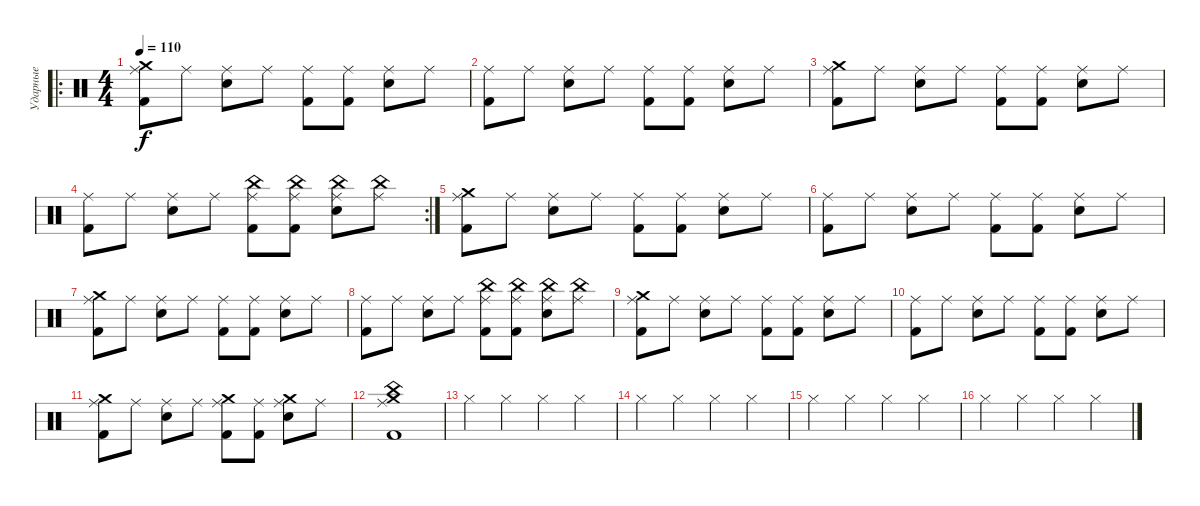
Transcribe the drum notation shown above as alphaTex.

\track ("Ударные" "Ударные") {instrument percussion}
\staff {score}
\articulation defaults
\ro
\ts (4 4)
\tempo 110
\clef neutral
\ks c
("Ride (middle)" "Crash medium (hit)" "Kick (hit) 2").8{dy f} "Ride (middle)".8 ("Ride (middle)" "Electric Snare (hit)").8 "Ride (middle)".8 ("Ride (middle)" "Kick (hit) 2").8 ("Ride (middle)" "Kick (hit) 2").8 ("Ride (middle)" "Electric Snare (hit)").8 "Ride (middle)".8 |
("Ride (middle)" "Kick (hit) 2").8 "Ride (middle)".8 ("Ride (middle)" "Electric Snare (hit)").8 "Ride (middle)".8 ("Ride (middle)" "Kick (hit) 2").8 ("Ride (middle)" "Kick (hit) 2").8 ("Ride (middle)" "Electric Snare (hit)").8 "Ride (middle)".8 |
("Ride (middle)" "Crash medium (hit)" "Kick (hit) 2").8 "Ride (middle)".8 ("Ride (middle)" "Electric Snare (hit)").8 "Ride (middle)".8 ("Ride (middle)" "Kick (hit) 2").8 ("Ride (middle)" "Kick (hit) 2").8 ("Ride (middle)" "Electric Snare (hit)").8 "Ride (middle)".8 |
\rc 2
("Ride (middle)" "Kick (hit) 2").8 "Ride (middle)".8 ("Ride (middle)" "Electric Snare (hit)").8 "Ride (middle)".8 ("Ride (middle)" "China (hit)" "Kick (hit) 2").8 ("Ride (middle)" "China (hit)" "Kick (hit) 2").8 ("Ride (middle)" "China (hit)" "Electric Snare (hit)").8 ("Ride (middle)" "China (hit)").8 |
("Ride (middle)" "Crash medium (hit)" "Kick (hit) 2").8 "Ride (middle)".8 ("Ride (middle)" "Electric Snare (hit)").8 "Ride (middle)".8 ("Ride (middle)" "Kick (hit) 2").8 ("Ride (middle)" "Kick (hit) 2").8 ("Ride (middle)" "Electric Snare (hit)").8 "Ride (middle)".8 |
("Ride (middle)" "Kick (hit) 2").8 "Ride (middle)".8 ("Ride (middle)" "Electric Snare (hit)").8 "Ride (middle)".8 ("Ride (middle)" "Kick (hit) 2").8 ("Ride (middle)" "Kick (hit) 2").8 ("Ride (middle)" "Electric Snare (hit)").8 "Ride (middle)".8 |
("Ride (middle)" "Crash medium (hit)" "Kick (hit) 2").8 "Ride (middle)".8 ("Ride (middle)" "Electric Snare (hit)").8 "Ride (middle)".8 ("Ride (middle)" "Kick (hit) 2").8 ("Ride (middle)" "Kick (hit) 2").8 ("Ride (middle)" "Electric Snare (hit)").8 "Ride (middle)".8 |
("Ride (middle)" "Kick (hit) 2").8 "Ride (middle)".8 ("Ride (middle)" "Electric Snare (hit)").8 "Ride (middle)".8 ("Ride (middle)" "China (hit)" "Kick (hit) 2").8 ("Ride (middle)" "China (hit)" "Kick (hit) 2").8 ("Ride (middle)" "China (hit)" "Electric Snare (hit)").8 ("Ride (middle)" "China (hit)").8 |
("Ride (middle)" "Crash medium (hit)" "Kick (hit) 2").8 "Ride (middle)".8 ("Ride (middle)" "Electric Snare (hit)").8 "Ride (middle)".8 ("Ride (middle)" "Kick (hit) 2").8 ("Ride (middle)" "Kick (hit) 2").8 ("Ride (middle)" "Electric Snare (hit)").8 "Ride (middle)".8 |
("Ride (middle)" "Kick (hit) 2").8 "Ride (middle)".8 ("Ride (middle)" "Electric Snare (hit)").8 "Ride (middle)".8 ("Ride (middle)" "Kick (hit) 2").8 ("Ride (middle)" "Kick (hit) 2").8 ("Ride (middle)" "Electric Snare (hit)").8 "Ride (middle)".8 |
("Ride (middle)" "Crash medium (hit)" "Kick (hit) 2").8 "Ride (middle)".8 ("Ride (middle)" "Electric Snare (hit)").8 "Ride (middle)".8 ("Ride (middle)" "Crash medium (hit)" "Kick (hit) 2").8 ("Ride (middle)" "Kick (hit) 2").8 ("Ride (middle)" "Crash medium (hit)" "Electric Snare (hit)").8 "Ride (middle)".8 |
("Ride (middle)" "Crash medium (hit)" "China (hit)" "Kick (hit) 2").1 |
"Hi-Hat (closed)".4 "Hi-Hat (closed)".4 "Hi-Hat (closed)".4 "Hi-Hat (closed)".4 |
"Hi-Hat (closed)".4 "Hi-Hat (closed)".4 "Hi-Hat (closed)".4 "Hi-Hat (closed)".4 |
"Hi-Hat (closed)".4 "Hi-Hat (closed)".4 "Hi-Hat (closed)".4 "Hi-Hat (closed)".4 |
"Hi-Hat (closed)".4 "Hi-Hat (closed)".4 "Hi-Hat (closed)".4 "Hi-Hat (closed)".4
